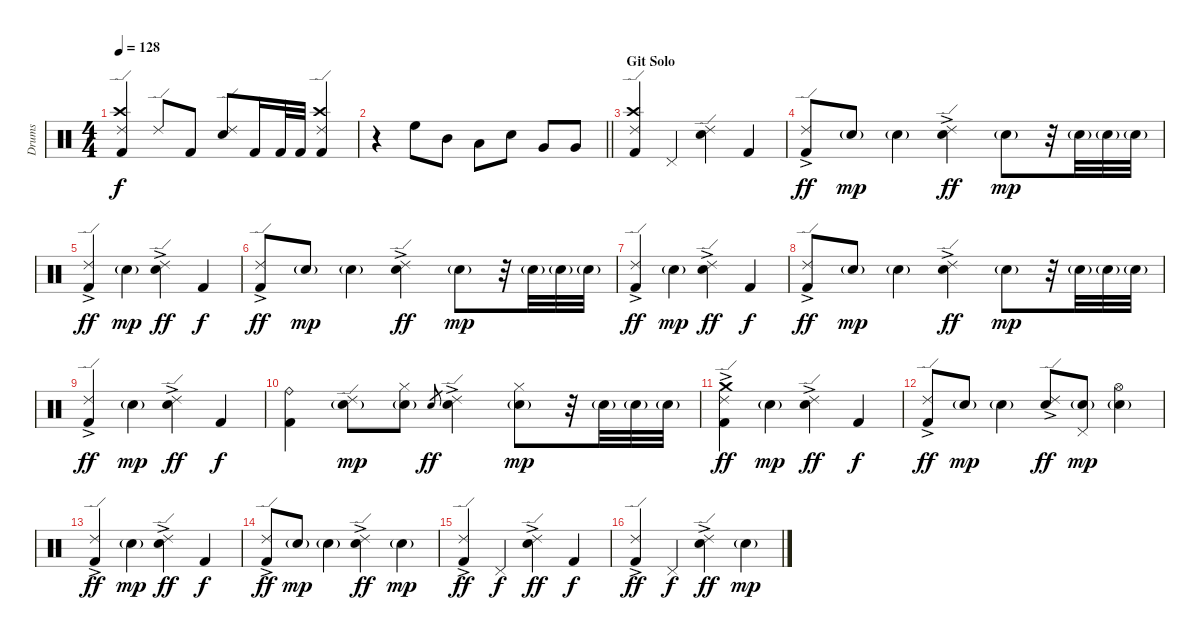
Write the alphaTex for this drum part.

\track ("Drums" "Drums") {instrument percussion}
\staff {score}
\articulation defaults
\ts (4 4)
\tempo 128
\clef neutral
\ks c
("Ride (edge) 2" "Crash high (hit)" "Kick (hit) 2").4{dy f} "Ride (edge) 2".8 "Kick (hit) 2".8 ("Ride (edge) 2" "Snare (hit) 2").8 "Kick (hit) 2".16 "Kick (hit) 2".32 "Kick (hit) 2".32 ("Ride (edge) 2" "Crash high (hit)" "Kick (hit) 2").4 |
\barLineRight lightlight
r.4 "High Floor Tom (hit)".8 "Mid Tom (hit)".8 "Low Tom (hit)".8 "Snare (hit) 2".8 "Very Low Tom (hit)".8 "Very Low Tom (hit)".8 |
\section ("" "Git Solo")
("Crash high (hit)" "Kick (hit) 2" "Ride (edge) 2").4 "Pedal Hi-Hat (hit)".4 ("Snare (hit) 2" "Ride (edge) 2").4 "Kick (hit) 2".4 |
("Kick (hit) 2" "Ride (edge) 2"{ac}).8{dy ff} "Snare (hit) 2"{g}.8{dy mp} "Snare (hit) 2"{g}.4 ("Snare (hit) 2"{ac} "Ride (edge) 2").4{dy ff} "Snare (hit) 2"{g}.8{dy mp} r.32 "Snare (hit) 2"{g}.32 "Snare (hit) 2"{g}.32 "Snare (hit) 2"{g}.32 |
("Kick (hit) 2"{ac} "Ride (edge) 2").4{dy ff} "Snare (hit) 2"{g}.4{dy mp} ("Snare (hit) 2"{ac} "Ride (edge) 2").4{dy ff} "Kick (hit) 2".4{dy f} |
("Kick (hit) 2" "Ride (edge) 2"{ac}).8{dy ff} "Snare (hit) 2"{g}.8{dy mp} "Snare (hit) 2"{g}.4 ("Snare (hit) 2"{ac} "Ride (edge) 2").4{dy ff} "Snare (hit) 2"{g}.8{dy mp} r.32 "Snare (hit) 2"{g}.32 "Snare (hit) 2"{g}.32 "Snare (hit) 2"{g}.32 |
("Kick (hit) 2"{ac} "Ride (edge) 2").4{dy ff} "Snare (hit) 2"{g}.4{dy mp} ("Snare (hit) 2"{ac} "Ride (edge) 2").4{dy ff} "Kick (hit) 2".4{dy f} |
("Kick (hit) 2" "Ride (edge) 2"{ac}).8{dy ff} "Snare (hit) 2"{g}.8{dy mp} "Snare (hit) 2"{g}.4 ("Snare (hit) 2"{ac} "Ride (edge) 2").4{dy ff} "Snare (hit) 2"{g}.8{dy mp} r.32 "Snare (hit) 2"{g}.32 "Snare (hit) 2"{g}.32 "Snare (hit) 2"{g}.32 |
("Kick (hit) 2"{ac} "Ride (edge) 2").4{dy ff} "Snare (hit) 2"{g}.4{dy mp} ("Snare (hit) 2"{ac} "Ride (edge) 2").4{dy ff} "Kick (hit) 2".4{dy f} |
("Ride (bell)" "Kick (hit) 2").4 ("Snare (hit) 2"{g} "Ride (edge) 2").8{dy mp} ("Snare (hit) 2"{g} "Hi-Hat (closed)").8 "Snare (hit) 2".8{gr dy ff} ("Snare (hit) 2"{ac} "Ride (edge) 2").4 ("Snare (hit) 2"{g} "Hi-Hat (closed)").8{dy mp} r.32 "Snare (hit) 2"{g}.32 "Snare (hit) 2"{g}.32 "Snare (hit) 2"{g}.32 |
("Crash medium (hit)" "Kick (hit) 2"{ac} "Ride (edge) 2").4{dy ff} "Snare (hit) 2"{g}.4{dy mp} ("Snare (hit) 2"{ac} "Ride (edge) 2").4{dy ff} "Kick (hit) 2".4{dy f} |
("Kick (hit) 2" "Ride (edge) 2"{ac}).8{dy ff} "Snare (hit) 2"{g}.8{dy mp} "Snare (hit) 2"{g}.4 ("Snare (hit) 2"{ac} "Ride (edge) 2").8{dy ff} ("Snare (hit) 2"{g} "Pedal Hi-Hat (hit)").8{dy mp} ("Snare (hit) 2"{g} "Hi-Hat (open)").4 |
("Kick (hit) 2"{ac} "Ride (edge) 2").4{dy ff} "Snare (hit) 2"{g}.4{dy mp} ("Snare (hit) 2"{ac} "Ride (edge) 2").4{dy ff} "Kick (hit) 2".4{dy f} |
("Kick (hit) 2" "Ride (edge) 2"{ac}).8{dy ff} "Snare (hit) 2"{g}.8{dy mp} "Snare (hit) 2"{g}.4 ("Snare (hit) 2"{ac} "Ride (edge) 2").4{dy ff} "Snare (hit) 2"{g}.4{dy mp} |
("Kick (hit) 2"{ac} "Ride (edge) 2").4{dy ff} "Pedal Hi-Hat (hit)".4{dy f} ("Snare (hit) 2"{ac} "Ride (edge) 2").4{dy ff} "Kick (hit) 2".4{dy f} |
("Kick (hit) 2" "Ride (edge) 2"{ac}).4{dy ff} "Pedal Hi-Hat (hit)".4{dy f} ("Snare (hit) 2"{ac} "Ride (edge) 2").4{dy ff} "Snare (hit) 2"{g}.4{dy mp}
